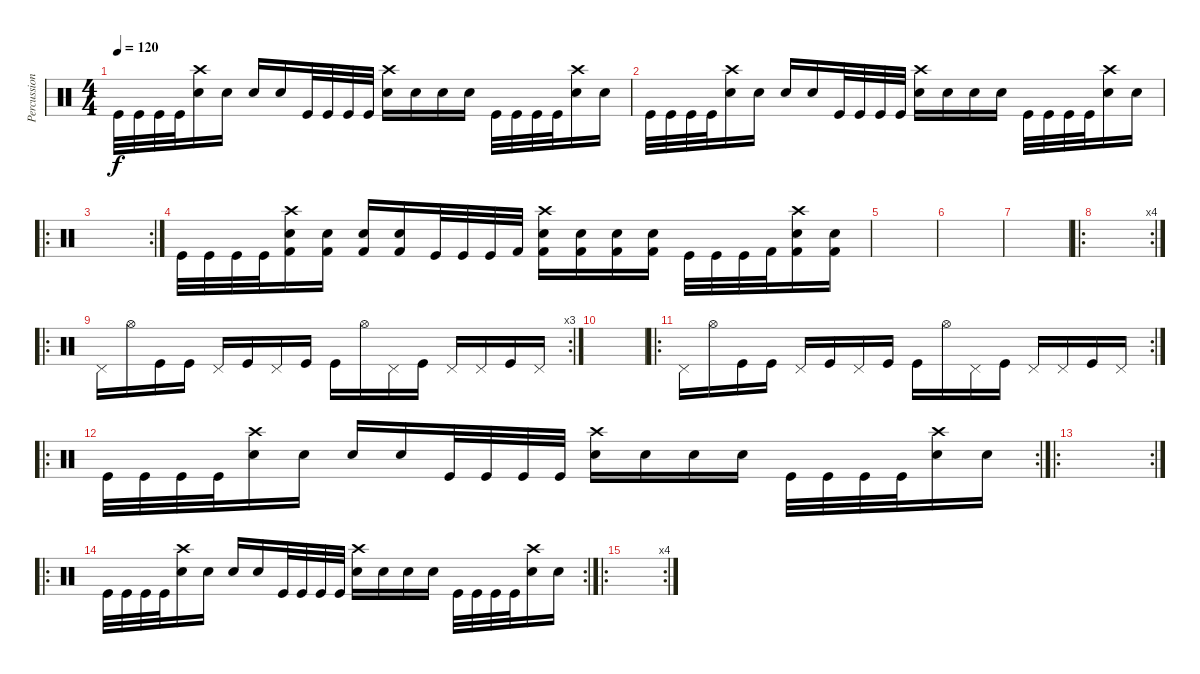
\track ("Percussions" "Percussion") {instrument percussion}
\staff {score}
\articulation defaults
\ts (4 4)
\tempo 120
\clef neutral
\ks c "Kick (hit)".32{dy f} "Kick (hit)".32 "Kick (hit)".32 "Kick (hit)".32
("Crash high (hit)" "Electric Snare (hit)").16 "Electric Snare (hit)".16 "Electric Snare (hit)".16 "Electric Snare (hit)".16 "Kick (hit)".32 "Kick (hit)".32 "Kick (hit)".32 "Kick (hit)".32 ("Crash high (hit)" "Electric Snare (hit)").16 "Electric Snare (hit)".16 "Electric Snare (hit)".16 "Electric Snare (hit)".16 "Kick (hit)".32 "Kick (hit)".32 "Kick (hit)".32 "Kick (hit)".32 ("Crash high (hit)" "Electric Snare (hit)").16 "Electric Snare (hit)".16 |
"Kick (hit)".32 "Kick (hit)".32 "Kick (hit)".32 "Kick (hit)".32 ("Crash high (hit)" "Electric Snare (hit)").16 "Electric Snare (hit)".16 "Electric Snare (hit)".16 "Electric Snare (hit)".16 "Kick (hit)".32 "Kick (hit)".32 "Kick (hit)".32 "Kick (hit)".32 ("Crash high (hit)" "Electric Snare (hit)").16 "Electric Snare (hit)".16 "Electric Snare (hit)".16 "Electric Snare (hit)".16 "Kick (hit)".32 "Kick (hit)".32 "Kick (hit)".32 "Kick (hit)".32 ("Crash high (hit)" "Electric Snare (hit)").16 "Electric Snare (hit)".16 |
\ro
\rc 2
|
"Kick (hit)".32 "Kick (hit)".32 "Kick (hit)".32 "Kick (hit)".32 ("Crash high (hit)" "Electric Snare (hit)" "Kick (hit) 2").16 ("Electric Snare (hit)" "Kick (hit) 2").16 ("Electric Snare (hit)" "Kick (hit) 2").16 ("Electric Snare (hit)" "Kick (hit) 2").16 "Kick (hit)".32 "Kick (hit)".32 "Kick (hit)".32 "Kick (hit) 2".32 ("Crash high (hit)" "Electric Snare (hit)" "Kick (hit) 2").16 ("Electric Snare (hit)" "Kick (hit) 2").16 ("Electric Snare (hit)" "Kick (hit) 2").16 ("Electric Snare (hit)" "Kick (hit) 2").16 "Kick (hit)".32 "Kick (hit)".32 "Kick (hit)".32 "Kick (hit) 2".32 ("Crash high (hit)" "Electric Snare (hit)" "Kick (hit) 2").16 ("Electric Snare (hit)" "Kick (hit) 2").16 |
|
|
|
\ro
\rc 4
|
\ro
\rc 3 "Pedal Hi-Hat (hit)".16 "Hi-Hat (open)".16 "Kick (hit)".16 "Kick (hit)".16 "Pedal Hi-Hat (hit)".16 "Kick (hit)".16 "Pedal Hi-Hat (hit)".16 "Kick (hit)".16 "Kick (hit)".16 "Hi-Hat (open)".16 "Pedal Hi-Hat (hit)".16 "Kick (hit)".16 "Pedal Hi-Hat (hit)".16 "Pedal Hi-Hat (hit)".16 "Kick (hit)".16 "Pedal Hi-Hat (hit)".16
|
|
\ro
\rc 2 "Pedal Hi-Hat (hit)".16 "Hi-Hat (open)".16 "Kick (hit)".16 "Kick (hit)".16 "Pedal Hi-Hat (hit)".16 "Kick (hit)".16 "Pedal Hi-Hat (hit)".16 "Kick (hit)".16 "Kick (hit)".16 "Hi-Hat (open)".16 "Pedal Hi-Hat (hit)".16 "Kick (hit)".16 "Pedal Hi-Hat (hit)".16 "Pedal Hi-Hat (hit)".16 "Kick (hit)".16 "Pedal Hi-Hat (hit)".16
|
\ro
\rc 2 "Kick (hit)".32 "Kick (hit)".32 "Kick (hit)".32 "Kick (hit)".32
("Crash high (hit)" "Electric Snare (hit)").16 "Electric Snare (hit)".16 "Electric Snare (hit)".16 "Electric Snare (hit)".16 "Kick (hit)".32 "Kick (hit)".32 "Kick (hit)".32 "Kick (hit)".32 ("Crash high (hit)" "Electric Snare (hit)").16 "Electric Snare (hit)".16 "Electric Snare (hit)".16 "Electric Snare (hit)".16 "Kick (hit)".32 "Kick (hit)".32 "Kick (hit)".32 "Kick (hit)".32 ("Crash high (hit)" "Electric Snare (hit)").16 "Electric Snare (hit)".16 |
\ro
\rc 2
|
\ro
\rc 2 "Kick (hit)".32 "Kick (hit)".32 "Kick (hit)".32 "Kick (hit)".32
("Crash high (hit)" "Electric Snare (hit)").16 "Electric Snare (hit)".16 "Electric Snare (hit)".16 "Electric Snare (hit)".16 "Kick (hit)".32 "Kick (hit)".32 "Kick (hit)".32 "Kick (hit)".32 ("Crash high (hit)" "Electric Snare (hit)").16 "Electric Snare (hit)".16 "Electric Snare (hit)".16 "Electric Snare (hit)".16 "Kick (hit)".32 "Kick (hit)".32 "Kick (hit)".32 "Kick (hit)".32 ("Crash high (hit)" "Electric Snare (hit)").16 "Electric Snare (hit)".16 |
\ro
\rc 4
